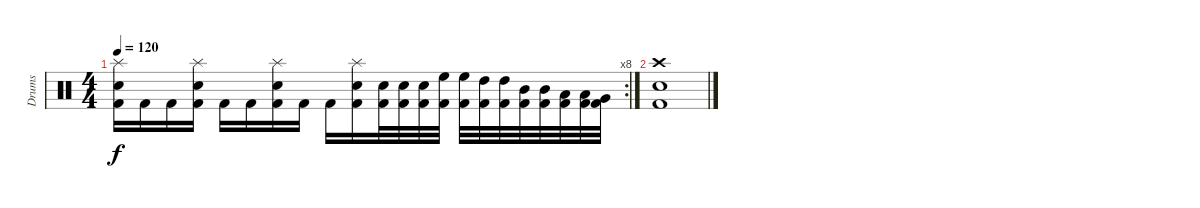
\track ("Drums" "Drums") {instrument percussion}
\staff {score}
\articulation defaults
\rc 8
\ts (4 4)
\tempo 120
\clef neutral
\ks c
("Splash (hit)" "Snare (hit) 2" "Kick (hit) 2").16{dy f} "Kick (hit) 2".16 "Kick (hit) 2".16 ("Splash (hit)" "Snare (hit) 2" "Kick (hit) 2").16 "Kick (hit) 2".16 "Kick (hit) 2".16 ("Splash (hit)" "Snare (hit) 2" "Kick (hit) 2").16 "Kick (hit) 2".16 "Kick (hit) 2".16 ("Splash (hit)" "Snare (hit) 2" "Kick (hit) 2").16 ("Snare (hit) 2" "Kick (hit) 2").32 ("Snare (hit) 2" "Kick (hit) 2").32 ("Snare (hit) 2" "Kick (hit) 2").32 ("High Floor Tom (hit)" "Kick (hit) 2").32 ("High Floor Tom (hit)" "Kick (hit) 2").32 ("High Tom (hit)" "Kick (hit) 2").32 ("High Tom (hit)" "Kick (hit) 2").32 ("Mid Tom (hit)" "Kick (hit) 2").32 ("Mid Tom (hit)" "Kick (hit) 2").32 ("Low Tom (hit)" "Kick (hit) 2").32 ("Low Tom (hit)" "Kick (hit) 2").32 ("Very Low Tom (hit)" "Kick (hit) 2").32 |
("Crash high (hit)" "Snare (hit) 2" "Kick (hit) 2").1
